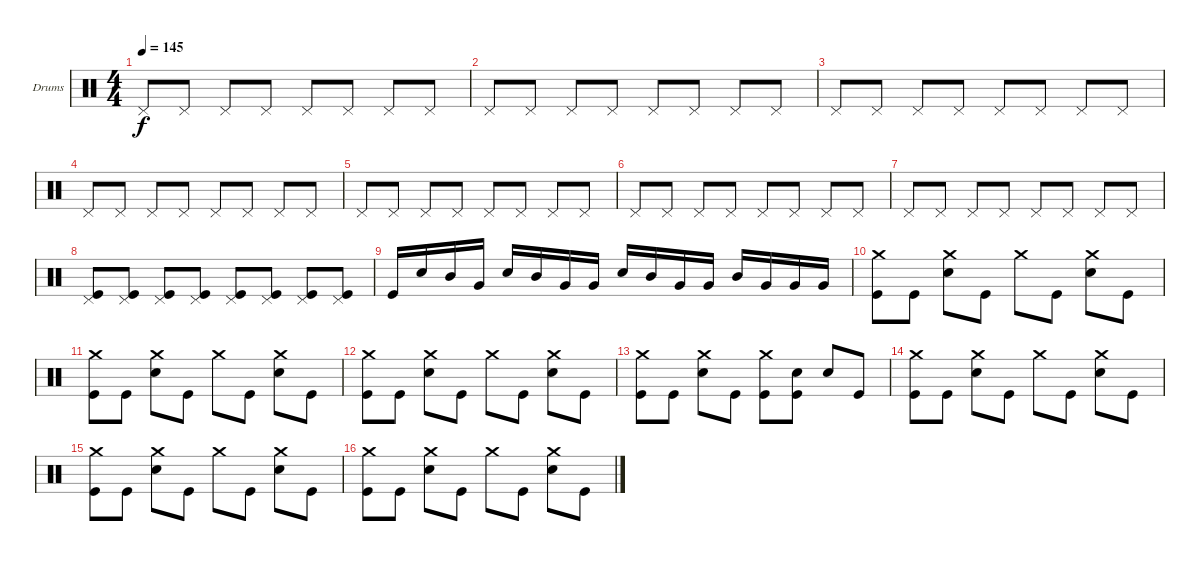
\defaultSystemsLayout 4
\bracketExtendMode groupsimilarinstruments
\firstSystemTrackNameOrientation horizontal
\otherSystemsTrackNameOrientation horizontal
\track ("Drumkit" "Drums") {instrument percussion}
\staff {score}
\articulation defaults
\ts (4 4)
\tempo 145
\clef neutral
\ks c "Pedal Hi-Hat (hit)".8{dy f} "Pedal Hi-Hat (hit)".8 "Pedal Hi-Hat (hit)".8 "Pedal Hi-Hat (hit)".8 "Pedal Hi-Hat (hit)".8 "Pedal Hi-Hat (hit)".8 "Pedal Hi-Hat (hit)".8 "Pedal Hi-Hat (hit)".8
|
"Pedal Hi-Hat (hit)".8 "Pedal Hi-Hat (hit)".8 "Pedal Hi-Hat (hit)".8 "Pedal Hi-Hat (hit)".8 "Pedal Hi-Hat (hit)".8 "Pedal Hi-Hat (hit)".8 "Pedal Hi-Hat (hit)".8 "Pedal Hi-Hat (hit)".8 |
"Pedal Hi-Hat (hit)".8 "Pedal Hi-Hat (hit)".8 "Pedal Hi-Hat (hit)".8 "Pedal Hi-Hat (hit)".8 "Pedal Hi-Hat (hit)".8 "Pedal Hi-Hat (hit)".8 "Pedal Hi-Hat (hit)".8 "Pedal Hi-Hat (hit)".8 |
"Pedal Hi-Hat (hit)".8 "Pedal Hi-Hat (hit)".8 "Pedal Hi-Hat (hit)".8 "Pedal Hi-Hat (hit)".8 "Pedal Hi-Hat (hit)".8 "Pedal Hi-Hat (hit)".8 "Pedal Hi-Hat (hit)".8 "Pedal Hi-Hat (hit)".8 |
"Pedal Hi-Hat (hit)".8 "Pedal Hi-Hat (hit)".8 "Pedal Hi-Hat (hit)".8 "Pedal Hi-Hat (hit)".8 "Pedal Hi-Hat (hit)".8 "Pedal Hi-Hat (hit)".8 "Pedal Hi-Hat (hit)".8 "Pedal Hi-Hat (hit)".8 |
"Pedal Hi-Hat (hit)".8 "Pedal Hi-Hat (hit)".8 "Pedal Hi-Hat (hit)".8 "Pedal Hi-Hat (hit)".8 "Pedal Hi-Hat (hit)".8 "Pedal Hi-Hat (hit)".8 "Pedal Hi-Hat (hit)".8 "Pedal Hi-Hat (hit)".8 |
"Pedal Hi-Hat (hit)".8 "Pedal Hi-Hat (hit)".8 "Pedal Hi-Hat (hit)".8 "Pedal Hi-Hat (hit)".8 "Pedal Hi-Hat (hit)".8 "Pedal Hi-Hat (hit)".8 "Pedal Hi-Hat (hit)".8 "Pedal Hi-Hat (hit)".8 |
("Pedal Hi-Hat (hit)" "Kick (hit)").8 ("Pedal Hi-Hat (hit)" "Kick (hit)").8 ("Pedal Hi-Hat (hit)" "Kick (hit)").8 ("Pedal Hi-Hat (hit)" "Kick (hit)").8 ("Pedal Hi-Hat (hit)" "Kick (hit)").8 ("Pedal Hi-Hat (hit)" "Kick (hit)").8 ("Pedal Hi-Hat (hit)" "Kick (hit)").8 ("Pedal Hi-Hat (hit)" "Kick (hit)").8 |
"Kick (hit)".16 "Snare (hit) 2".16 "Mid Tom (hit)".16 "Very Low Tom (hit)".16 "Snare (hit) 2".16 "Mid Tom (hit)".16 "Very Low Tom (hit)".16 "Very Low Tom (hit)".16 "Snare (hit) 2".16 "Mid Tom (hit)".16 "Very Low Tom (hit)".16 "Very Low Tom (hit)".16 "Mid Tom (hit)".16 "Very Low Tom (hit)".16 "Very Low Tom (hit)".16 "Very Low Tom (hit)".16 |
("Kick (hit)" "Crash medium (hit)").8 "Kick (hit)".8 ("Snare (hit) 2" "Crash medium (hit)").8 "Kick (hit)".8 "Crash medium (hit)".8 "Kick (hit)".8 ("Snare (hit) 2" "Crash medium (hit)").8 "Kick (hit)".8 |
("Kick (hit)" "Crash medium (hit)").8 "Kick (hit)".8 ("Snare (hit) 2" "Crash medium (hit)").8 "Kick (hit)".8 "Crash medium (hit)".8 "Kick (hit)".8 ("Snare (hit) 2" "Crash medium (hit)").8 "Kick (hit)".8 |
("Kick (hit)" "Crash medium (hit)").8 "Kick (hit)".8 ("Snare (hit) 2" "Crash medium (hit)").8 "Kick (hit)".8 "Crash medium (hit)".8 "Kick (hit)".8 ("Snare (hit) 2" "Crash medium (hit)").8 "Kick (hit)".8 |
("Kick (hit)" "Crash medium (hit)").8 "Kick (hit)".8 ("Snare (hit) 2" "Crash medium (hit)").8 "Kick (hit)".8 ("Crash medium (hit)" "Kick (hit)").8 ("Kick (hit)" "Snare (hit) 2").8 "Snare (hit) 2".8 "Kick (hit)".8 |
("Kick (hit)" "Crash medium (hit)").8 "Kick (hit)".8 ("Snare (hit) 2" "Crash medium (hit)").8 "Kick (hit)".8 "Crash medium (hit)".8 "Kick (hit)".8 ("Snare (hit) 2" "Crash medium (hit)").8 "Kick (hit)".8 |
("Kick (hit)" "Crash medium (hit)").8 "Kick (hit)".8 ("Snare (hit) 2" "Crash medium (hit)").8 "Kick (hit)".8 "Crash medium (hit)".8 "Kick (hit)".8 ("Snare (hit) 2" "Crash medium (hit)").8 "Kick (hit)".8 |
("Kick (hit)" "Crash medium (hit)").8 "Kick (hit)".8 ("Snare (hit) 2" "Crash medium (hit)").8 "Kick (hit)".8 "Crash medium (hit)".8 "Kick (hit)".8 ("Snare (hit) 2" "Crash medium (hit)").8 "Kick (hit)".8
